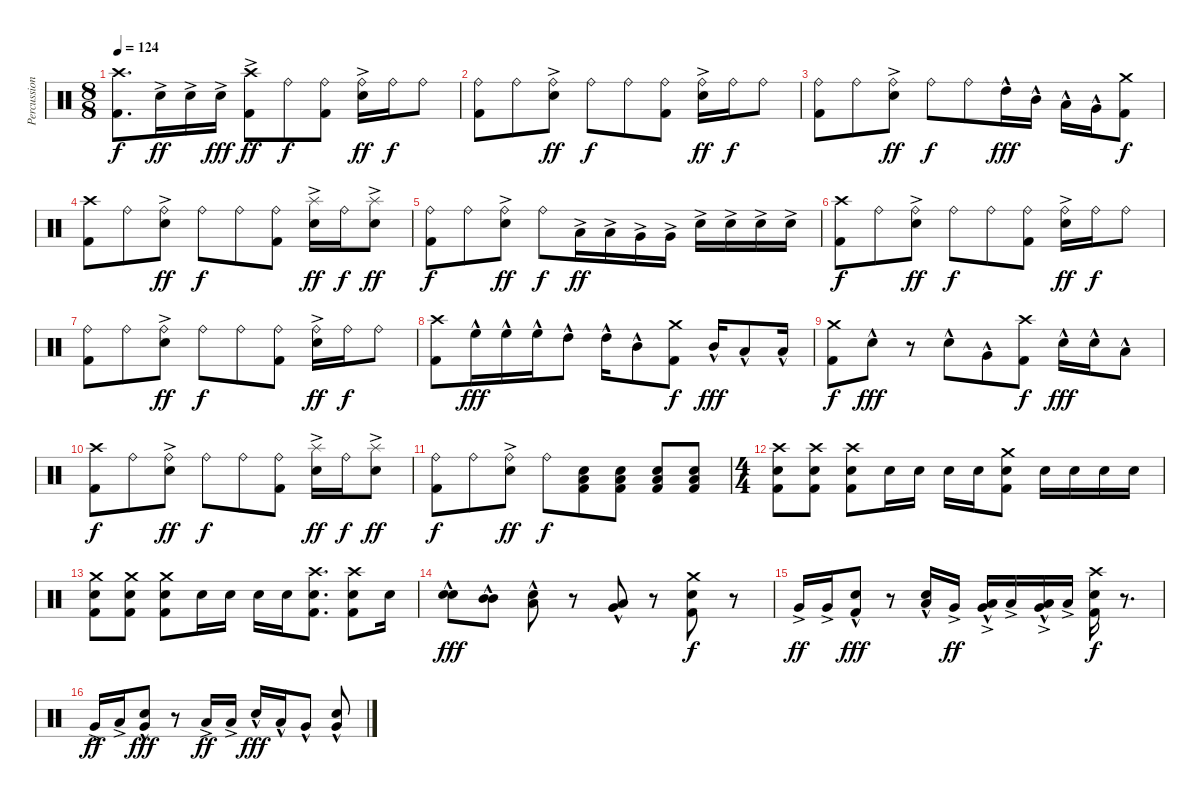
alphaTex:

\track ("Percussion" "Percussion") {instrument percussion}
\staff {score}
\articulation defaults
\ts (8 8)
\tempo 124
\clef neutral
\ks c
("Crash high (hit)" "Kick (hit) 2").8{d dy f} "Electric Snare (hit)"{ac}.16{dy ff} "Electric Snare (hit)"{ac}.16 "Electric Snare (hit)"{ac}.16{dy fff} ("Crash high (hit)"{ac} "Kick (hit) 2"{ac}).8{dy ff} "Ride (bell)".8{dy f} ("Ride (bell)" "Kick (hit) 2").8 ("Ride (bell)" "Electric Snare (hit)"{ac}).16{dy ff} "Ride (bell)".16{dy f} "Ride (bell)".8 |
("Ride (bell)" "Kick (hit) 2").8 "Ride (bell)".8 ("Ride (bell)" "Electric Snare (hit)"{ac}).8{dy ff} "Ride (bell)".8{dy f} "Ride (bell)".8 ("Ride (bell)" "Kick (hit) 2").8 ("Ride (bell)" "Electric Snare (hit)"{ac}).16{dy ff} "Ride (bell)".16{dy f} "Ride (bell)".8 |
("Ride (bell)" "Kick (hit) 2").8 "Ride (bell)".8 ("Ride (bell)" "Electric Snare (hit)"{ac}).8{dy ff} "Ride (bell)".8{dy f} "Ride (bell)".8 "High Tom (hit)"{hac}.16{dy fff} "Mid Tom (hit)"{hac}.16 "Low Tom (hit)"{hac}.16 "Very Low Tom (hit)"{hac}.16 ("Kick (hit) 2" "Crash medium (hit)").8{dy f} |
("Crash high (hit)" "Kick (hit) 2").8 "Ride (bell)".8 ("Ride (bell)" "Electric Snare (hit)"{ac}).8{dy ff} "Ride (bell)".8{dy f} "Ride (bell)".8 ("Ride (bell)" "Kick (hit) 2").8 ("Splash (hit)" "Electric Snare (hit)"{ac}).16{dy ff} "Ride (bell)".16{dy f} ("Splash (hit)" "Electric Snare (hit)"{ac}).8{dy ff} |
("Ride (bell)" "Kick (hit) 2").8{dy f} "Ride (bell)".8 ("Ride (bell)" "Electric Snare (hit)"{ac}).8{dy ff} "Ride (bell)".8{dy f} "Low Tom (hit)"{ac}.16{dy ff} "Low Tom (hit)"{ac}.16 "Very Low Tom (hit)"{ac}.16 "Very Low Tom (hit)"{ac}.16 "Electric Snare (hit)"{ac}.16 "Electric Snare (hit)"{ac}.16 "Electric Snare (hit)"{ac}.16 "Electric Snare (hit)"{ac}.16 |
("Crash high (hit)" "Kick (hit) 2").8{dy f} "Ride (bell)".8 ("Ride (bell)" "Electric Snare (hit)"{ac}).8{dy ff} "Ride (bell)".8{dy f} "Ride (bell)".8 ("Ride (bell)" "Kick (hit) 2").8 ("Ride (bell)" "Electric Snare (hit)"{ac}).16{dy ff} "Ride (bell)".16{dy f} "Ride (bell)".8 |
("Ride (bell)" "Kick (hit) 2").8 "Ride (bell)".8 ("Ride (bell)" "Electric Snare (hit)"{ac}).8{dy ff} "Ride (bell)".8{dy f} "Ride (bell)".8 ("Ride (bell)" "Kick (hit) 2").8 ("Ride (bell)" "Electric Snare (hit)"{ac}).16{dy ff} "Ride (bell)".16{dy f} "Ride (bell)".8 |
("Crash high (hit)" "Kick (hit) 2").8 "High Floor Tom (hit)"{hac}.16{dy fff} "High Floor Tom (hit)"{hac}.16 "High Floor Tom (hit)"{hac}.16 "High Tom (hit)"{hac}.8 "High Tom (hit)"{hac}.16 "Mid Tom (hit)"{hac}.8 ("Kick (hit) 2" "Crash medium (hit)").8{dy f} "Mid Tom (hit)"{hac}.16{dy fff} "Low Tom (hit)"{hac}.8 "Low Tom (hit)"{hac}.16 |
("Crash medium (hit)" "Kick (hit) 2").8{dy f} "Electric Snare (hit)"{hac}.8{dy fff} r.8 "Electric Snare (hit)"{hac}.8 "Very Low Tom (hit)"{hac}.8 ("Crash high (hit)" "Kick (hit) 2").8{dy f} "Electric Snare (hit)"{hac}.16{dy fff} "Electric Snare (hit)"{hac}.16 "Low Tom (hit)"{hac}.8 |
("Crash high (hit)" "Kick (hit) 2").8{dy f} "Ride (bell)".8 ("Ride (bell)" "Electric Snare (hit)"{ac}).8{dy ff} "Ride (bell)".8{dy f} "Ride (bell)".8 ("Ride (bell)" "Kick (hit) 2").8 ("Splash (hit)" "Electric Snare (hit)"{ac}).16{dy ff} "Ride (bell)".16{dy f} ("Splash (hit)" "Electric Snare (hit)"{ac}).8{dy ff} |
("Ride (bell)" "Kick (hit) 2").8{dy f} "Ride (bell)".8 ("Ride (bell)" "Electric Snare (hit)"{ac}).8{dy ff} "Ride (bell)".8{dy f} ("Low Floor Tom (hit)" "Electric Snare (hit)" "Kick (hit) 2").8 ("Low Floor Tom (hit)" "Electric Snare (hit)" "Kick (hit) 2").8 ("Low Floor Tom (hit)" "Electric Snare (hit)" "Kick (hit) 2").8 ("Low Floor Tom (hit)" "Electric Snare (hit)" "Kick (hit) 2").8 |
\ts (4 4)
("Kick (hit) 2" "Crash high (hit)" "Electric Snare (hit)").8 ("Kick (hit) 2" "Crash high (hit)" "Electric Snare (hit)").8 ("Kick (hit) 2" "Crash high (hit)" "Electric Snare (hit)").8 "Electric Snare (hit)".16 "Electric Snare (hit)".16 "Electric Snare (hit)".16 "Electric Snare (hit)".16 ("Kick (hit) 2" "Crash medium (hit)" "Electric Snare (hit)").8 "Electric Snare (hit)".16 "Electric Snare (hit)".16 "Electric Snare (hit)".16 "Electric Snare (hit)".16 |
("Kick (hit) 2" "Crash medium (hit)" "Electric Snare (hit)").8 ("Kick (hit) 2" "Crash medium (hit)" "Electric Snare (hit)").8 ("Kick (hit) 2" "Crash medium (hit)" "Electric Snare (hit)").8 "Electric Snare (hit)".16 "Electric Snare (hit)".16 "Electric Snare (hit)".16 "Electric Snare (hit)".16 ("Crash high (hit)" "Electric Snare (hit)" "Kick (hit) 2").8{d} ("Crash high (hit)" "Electric Snare (hit)" "Kick (hit) 2").8 "Electric Snare (hit)".16 |
("Electric Snare (hit)" "Electric Snare (hit)"{hac}).8{dy fff} ("Mid Tom (hit)" "Mid Tom (hit)"{hac}).8 ("Electric Snare (hit)" "Low Tom (hit)"{hac}).8 r.8 ("Low Tom (hit)" "Very Low Tom (hit)"{hac}).8 r.8 ("Kick (hit) 2" "Crash medium (hit)" "Electric Snare (hit)").8{dy f} r.8 |
"Very Low Tom (hit)"{ac}.16{dy ff} "Very Low Tom (hit)"{ac}.16 ("Kick (hit) 2" "Electric Snare (hit)"{hac}).8{dy fff} r.8 ("Low Floor Tom (hit)" "Electric Snare (hit)"{hac}).16 "Very Low Tom (hit)"{ac}.16{dy ff} ("Very Low Tom (hit)"{hac} "Low Tom (hit)"{ac}).16 "Low Floor Tom (hit)"{ac}.16 ("Low Floor Tom (hit)"{hac} "Very Low Tom (hit)"{ac}).16 "Low Tom (hit)"{ac}.16 ("Crash high (hit)" "Electric Snare (hit)" "Kick (hit) 2").16{dy f} r.8{d} |
"Very Low Tom (hit)"{ac}.16{dy ff} "Low Floor Tom (hit)"{ac}.16 ("Very Low Tom (hit)"{hac} "Electric Snare (hit)"{hac}).8{dy fff} r.8 "Low Floor Tom (hit)"{ac}.16{dy ff} "Low Floor Tom (hit)"{ac}.16 "Electric Snare (hit)"{hac}.16{dy fff} "Low Tom (hit)"{hac}.16 "Very Low Tom (hit)"{hac}.8 ("Very Low Tom (hit)" "Electric Snare (hit)"{hac}).8
